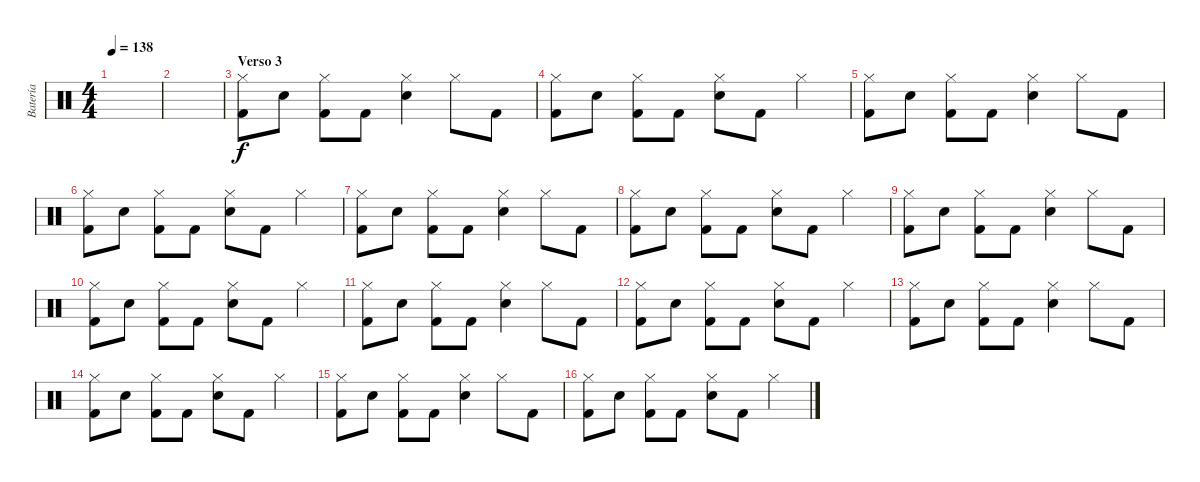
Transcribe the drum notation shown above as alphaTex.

\track ("Batería" "Batería") {instrument percussion}
\staff {score}
\articulation defaults
\ts (4 4)
\tempo 138
\clef neutral
\ks c
|
|
\section ("" "Verso 3")
("Kick (hit) 2" "Hi-Hat (closed)").8 "Electric Snare (hit)".8 ("Kick (hit) 2" "Hi-Hat (closed)").8 "Kick (hit) 2".8 ("Electric Snare (hit)" "Hi-Hat (closed)").4 "Hi-Hat (closed)".8 "Kick (hit) 2".8 |
("Kick (hit) 2" "Hi-Hat (closed)").8 "Electric Snare (hit)".8 ("Kick (hit) 2" "Hi-Hat (closed)").8 "Kick (hit) 2".8 ("Electric Snare (hit)" "Hi-Hat (closed)").8 "Kick (hit) 2".8 "Hi-Hat (closed)".4 |
("Kick (hit) 2" "Hi-Hat (closed)").8 "Electric Snare (hit)".8 ("Kick (hit) 2" "Hi-Hat (closed)").8 "Kick (hit) 2".8 ("Electric Snare (hit)" "Hi-Hat (closed)").4 "Hi-Hat (closed)".8 "Kick (hit) 2".8 |
("Kick (hit) 2" "Hi-Hat (closed)").8 "Electric Snare (hit)".8 ("Kick (hit) 2" "Hi-Hat (closed)").8 "Kick (hit) 2".8 ("Electric Snare (hit)" "Hi-Hat (closed)").8 "Kick (hit) 2".8 "Hi-Hat (closed)".4 |
("Kick (hit) 2" "Hi-Hat (closed)").8 "Electric Snare (hit)".8 ("Kick (hit) 2" "Hi-Hat (closed)").8 "Kick (hit) 2".8 ("Electric Snare (hit)" "Hi-Hat (closed)").4 "Hi-Hat (closed)".8 "Kick (hit) 2".8 |
("Kick (hit) 2" "Hi-Hat (closed)").8 "Electric Snare (hit)".8 ("Kick (hit) 2" "Hi-Hat (closed)").8 "Kick (hit) 2".8 ("Electric Snare (hit)" "Hi-Hat (closed)").8 "Kick (hit) 2".8 "Hi-Hat (closed)".4 |
("Kick (hit) 2" "Hi-Hat (closed)").8 "Electric Snare (hit)".8 ("Kick (hit) 2" "Hi-Hat (closed)").8 "Kick (hit) 2".8 ("Electric Snare (hit)" "Hi-Hat (closed)").4 "Hi-Hat (closed)".8 "Kick (hit) 2".8 |
("Kick (hit) 2" "Hi-Hat (closed)").8 "Electric Snare (hit)".8 ("Kick (hit) 2" "Hi-Hat (closed)").8 "Kick (hit) 2".8 ("Electric Snare (hit)" "Hi-Hat (closed)").8 "Kick (hit) 2".8 "Hi-Hat (closed)".4 |
("Kick (hit) 2" "Hi-Hat (closed)").8 "Electric Snare (hit)".8 ("Kick (hit) 2" "Hi-Hat (closed)").8 "Kick (hit) 2".8 ("Electric Snare (hit)" "Hi-Hat (closed)").4 "Hi-Hat (closed)".8 "Kick (hit) 2".8 |
("Kick (hit) 2" "Hi-Hat (closed)").8 "Electric Snare (hit)".8 ("Kick (hit) 2" "Hi-Hat (closed)").8 "Kick (hit) 2".8 ("Electric Snare (hit)" "Hi-Hat (closed)").8 "Kick (hit) 2".8 "Hi-Hat (closed)".4 |
("Kick (hit) 2" "Hi-Hat (closed)").8 "Electric Snare (hit)".8 ("Kick (hit) 2" "Hi-Hat (closed)").8 "Kick (hit) 2".8 ("Electric Snare (hit)" "Hi-Hat (closed)").4 "Hi-Hat (closed)".8 "Kick (hit) 2".8 |
("Kick (hit) 2" "Hi-Hat (closed)").8 "Electric Snare (hit)".8 ("Kick (hit) 2" "Hi-Hat (closed)").8 "Kick (hit) 2".8 ("Electric Snare (hit)" "Hi-Hat (closed)").8 "Kick (hit) 2".8 "Hi-Hat (closed)".4 |
("Kick (hit) 2" "Hi-Hat (closed)").8 "Electric Snare (hit)".8 ("Kick (hit) 2" "Hi-Hat (closed)").8 "Kick (hit) 2".8 ("Electric Snare (hit)" "Hi-Hat (closed)").4 "Hi-Hat (closed)".8 "Kick (hit) 2".8 |
("Kick (hit) 2" "Hi-Hat (closed)").8 "Electric Snare (hit)".8 ("Kick (hit) 2" "Hi-Hat (closed)").8 "Kick (hit) 2".8 ("Electric Snare (hit)" "Hi-Hat (closed)").8 "Kick (hit) 2".8 "Hi-Hat (closed)".4
